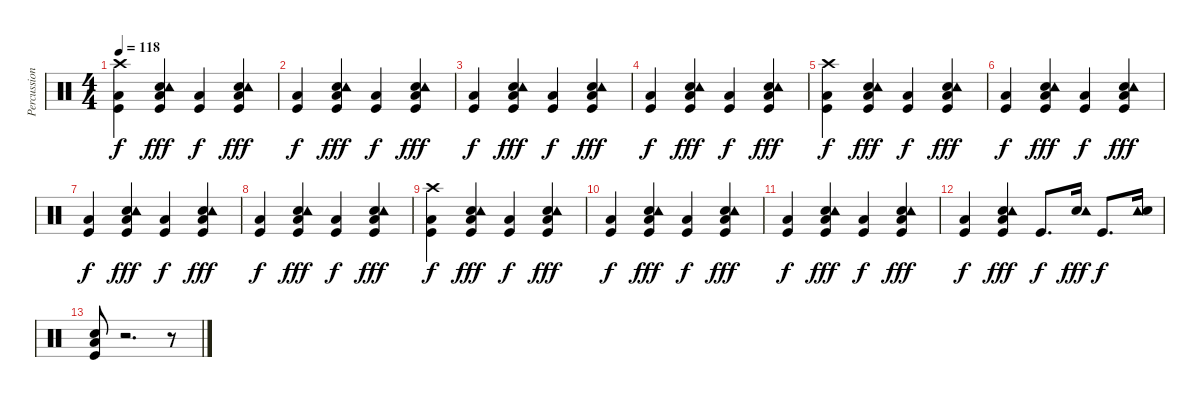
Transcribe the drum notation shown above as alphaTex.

\track ("Percussion" "Percussion") {instrument percussion}
\staff {score}
\articulation defaults
\ts (4 4)
\tempo 118
\clef neutral
\ks c
("Crash high (hit)" "Kick (hit)" "Low Floor Tom (hit)").4{dy f} ("Snare (hit) 2" "Tambourine (hit)" "Kick (hit)" "Low Floor Tom (hit)").4{dy fff} ("Kick (hit)" "Low Floor Tom (hit)").4{dy f} ("Snare (hit) 2" "Tambourine (hit)" "Kick (hit)" "Low Floor Tom (hit)").4{dy fff} |
("Kick (hit)" "Low Floor Tom (hit)").4{dy f} ("Snare (hit) 2" "Tambourine (hit)" "Kick (hit)" "Low Floor Tom (hit)").4{dy fff} ("Kick (hit)" "Low Floor Tom (hit)").4{dy f} ("Snare (hit) 2" "Tambourine (hit)" "Kick (hit)" "Low Floor Tom (hit)").4{dy fff} |
("Kick (hit)" "Low Floor Tom (hit)").4{dy f} ("Snare (hit) 2" "Tambourine (hit)" "Kick (hit)" "Low Floor Tom (hit)").4{dy fff} ("Kick (hit)" "Low Floor Tom (hit)").4{dy f} ("Snare (hit) 2" "Tambourine (hit)" "Kick (hit)" "Low Floor Tom (hit)").4{dy fff} |
("Kick (hit)" "Low Floor Tom (hit)").4{dy f} ("Snare (hit) 2" "Tambourine (hit)" "Kick (hit)" "Low Floor Tom (hit)").4{dy fff} ("Kick (hit)" "Low Floor Tom (hit)").4{dy f} ("Snare (hit) 2" "Tambourine (hit)" "Kick (hit)" "Low Floor Tom (hit)").4{dy fff} |
("Crash high (hit)" "Kick (hit)" "Low Floor Tom (hit)").4{dy f} ("Snare (hit) 2" "Tambourine (hit)" "Kick (hit)" "Low Floor Tom (hit)").4{dy fff} ("Kick (hit)" "Low Floor Tom (hit)").4{dy f} ("Snare (hit) 2" "Tambourine (hit)" "Kick (hit)" "Low Floor Tom (hit)").4{dy fff} |
("Kick (hit)" "Low Floor Tom (hit)").4{dy f} ("Snare (hit) 2" "Tambourine (hit)" "Kick (hit)" "Low Floor Tom (hit)").4{dy fff} ("Kick (hit)" "Low Floor Tom (hit)").4{dy f} ("Snare (hit) 2" "Tambourine (hit)" "Kick (hit)" "Low Floor Tom (hit)").4{dy fff} |
("Kick (hit)" "Low Floor Tom (hit)").4{dy f} ("Snare (hit) 2" "Tambourine (hit)" "Kick (hit)" "Low Floor Tom (hit)").4{dy fff} ("Kick (hit)" "Low Floor Tom (hit)").4{dy f} ("Snare (hit) 2" "Tambourine (hit)" "Kick (hit)" "Low Floor Tom (hit)").4{dy fff} |
("Kick (hit)" "Low Floor Tom (hit)").4{dy f} ("Snare (hit) 2" "Tambourine (hit)" "Kick (hit)" "Low Floor Tom (hit)").4{dy fff} ("Kick (hit)" "Low Floor Tom (hit)").4{dy f} ("Snare (hit) 2" "Tambourine (hit)" "Kick (hit)" "Low Floor Tom (hit)").4{dy fff} |
("Crash high (hit)" "Kick (hit)" "Low Floor Tom (hit)").4{dy f} ("Snare (hit) 2" "Tambourine (hit)" "Kick (hit)" "Low Floor Tom (hit)").4{dy fff} ("Kick (hit)" "Low Floor Tom (hit)").4{dy f} ("Snare (hit) 2" "Tambourine (hit)" "Kick (hit)" "Low Floor Tom (hit)").4{dy fff} |
("Kick (hit)" "Low Floor Tom (hit)").4{dy f} ("Snare (hit) 2" "Tambourine (hit)" "Kick (hit)" "Low Floor Tom (hit)").4{dy fff} ("Kick (hit)" "Low Floor Tom (hit)").4{dy f} ("Snare (hit) 2" "Tambourine (hit)" "Kick (hit)" "Low Floor Tom (hit)").4{dy fff} |
("Kick (hit)" "Low Floor Tom (hit)").4{dy f} ("Snare (hit) 2" "Tambourine (hit)" "Kick (hit)" "Low Floor Tom (hit)").4{dy fff} ("Kick (hit)" "Low Floor Tom (hit)").4{dy f} ("Snare (hit) 2" "Tambourine (hit)" "Kick (hit)" "Low Floor Tom (hit)").4{dy fff} |
("Kick (hit)" "Low Floor Tom (hit)").4{dy f} ("Snare (hit) 2" "Tambourine (hit)" "Kick (hit)" "Low Floor Tom (hit)").4{dy fff} "Kick (hit)".8{d dy f} ("Snare (hit) 2" "Tambourine (hit)").16{dy fff} "Kick (hit)".8{d dy f} ("Tambourine (hit)" "Snare (hit) 2").16 |
("Snare (hit) 2" "Low Floor Tom (hit)" "Kick (hit)").8 r.2{d} r.8
